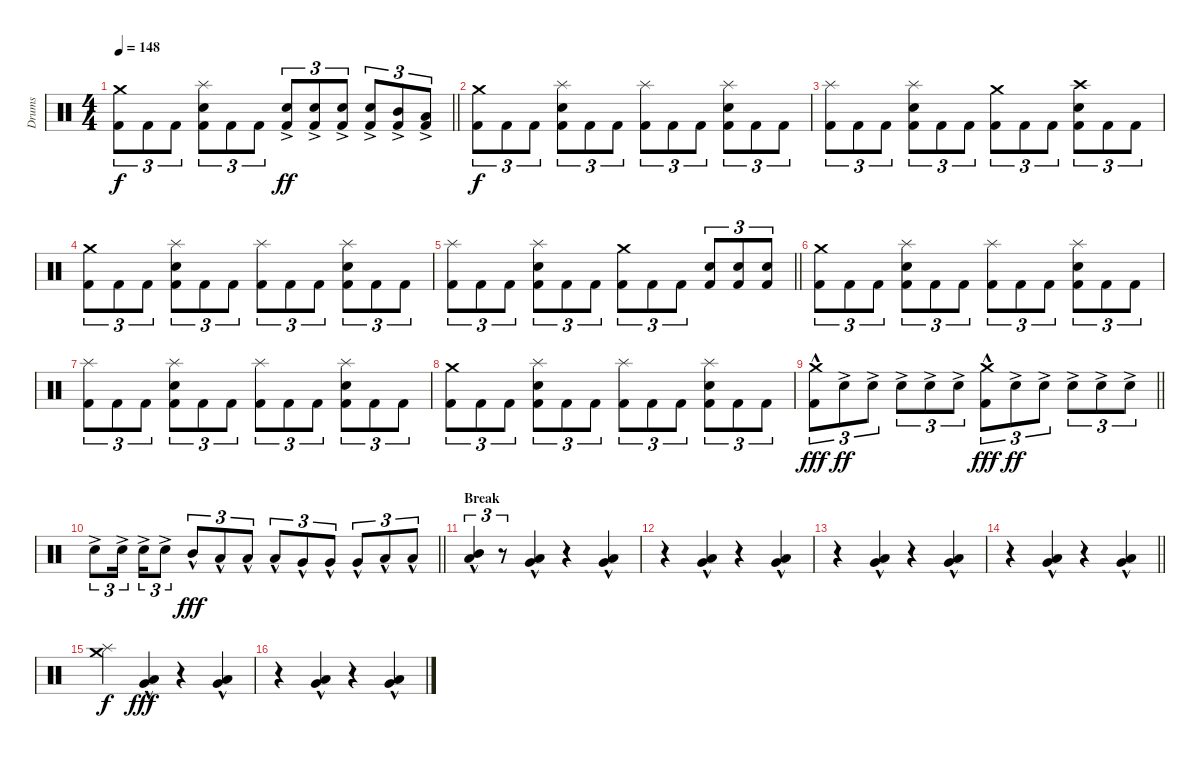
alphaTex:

\track ("Drums" "Drums") {instrument percussion}
\staff {score}
\articulation defaults
\ts (4 4)
\tempo 148
\clef neutral
\barLineRight lightlight
\ks c
("Kick (hit) 2" "Crash medium (hit)").8{tu (3 2) dy f} "Kick (hit) 2".8{tu (3 2)} "Kick (hit) 2".8{tu (3 2)} ("Kick (hit) 2" "Snare (hit) 2" "Splash (hit)").8{tu (3 2)} "Kick (hit) 2".8{tu (3 2)} "Kick (hit) 2".8{tu (3 2)} ("Kick (hit) 2" "Snare (hit) 2"{ac}).8{tu (3 2) dy ff} ("Kick (hit) 2" "Snare (hit) 2"{ac}).8{tu (3 2)} ("Kick (hit) 2" "Snare (hit) 2"{ac}).8{tu (3 2)} ("Kick (hit) 2" "Snare (hit) 2"{ac}).8{tu (3 2)} ("Kick (hit) 2" "Mid Tom (hit)"{ac}).8{tu (3 2)} ("Kick (hit) 2" "Low Tom (hit)"{ac}).8{tu (3 2)} |
\section ("" "")
("Kick (hit) 2" "Crash medium (hit)").8{tu (3 2) dy f} "Kick (hit) 2".8{tu (3 2)} "Kick (hit) 2".8{tu (3 2)} ("Kick (hit) 2" "Snare (hit) 2" "Splash (hit)").8{tu (3 2)} "Kick (hit) 2".8{tu (3 2)} "Kick (hit) 2".8{tu (3 2)} ("Kick (hit) 2" "Splash (hit)").8{tu (3 2)} "Kick (hit) 2".8{tu (3 2)} "Kick (hit) 2".8{tu (3 2)} ("Kick (hit) 2" "Snare (hit) 2" "Splash (hit)").8{tu (3 2)} "Kick (hit) 2".8{tu (3 2)} "Kick (hit) 2".8{tu (3 2)} |
("Kick (hit) 2" "Splash (hit)").8{tu (3 2)} "Kick (hit) 2".8{tu (3 2)} "Kick (hit) 2".8{tu (3 2)} ("Kick (hit) 2" "Snare (hit) 2" "Splash (hit)").8{tu (3 2)} "Kick (hit) 2".8{tu (3 2)} "Kick (hit) 2".8{tu (3 2)} ("Kick (hit) 2" "Crash medium (hit)").8{tu (3 2)} "Kick (hit) 2".8{tu (3 2)} "Kick (hit) 2".8{tu (3 2)} ("Kick (hit) 2" "Snare (hit) 2" "Crash high (hit)").8{tu (3 2)} "Kick (hit) 2".8{tu (3 2)} "Kick (hit) 2".8{tu (3 2)} |
("Kick (hit) 2" "Crash medium (hit)").8{tu (3 2)} "Kick (hit) 2".8{tu (3 2)} "Kick (hit) 2".8{tu (3 2)} ("Kick (hit) 2" "Snare (hit) 2" "Splash (hit)").8{tu (3 2)} "Kick (hit) 2".8{tu (3 2)} "Kick (hit) 2".8{tu (3 2)} ("Kick (hit) 2" "Splash (hit)").8{tu (3 2)} "Kick (hit) 2".8{tu (3 2)} "Kick (hit) 2".8{tu (3 2)} ("Kick (hit) 2" "Snare (hit) 2" "Splash (hit)").8{tu (3 2)} "Kick (hit) 2".8{tu (3 2)} "Kick (hit) 2".8{tu (3 2)} |
\barLineRight lightlight
("Kick (hit) 2" "Splash (hit)").8{tu (3 2)} "Kick (hit) 2".8{tu (3 2)} "Kick (hit) 2".8{tu (3 2)} ("Kick (hit) 2" "Snare (hit) 2" "Splash (hit)").8{tu (3 2)} "Kick (hit) 2".8{tu (3 2)} "Kick (hit) 2".8{tu (3 2)} ("Kick (hit) 2" "Crash medium (hit)").8{tu (3 2)} "Kick (hit) 2".8{tu (3 2)} "Kick (hit) 2".8{tu (3 2)} ("Kick (hit) 2" "Snare (hit) 2").8{tu (3 2)} ("Kick (hit) 2" "Snare (hit) 2").8{tu (3 2)} ("Kick (hit) 2" "Snare (hit) 2").8{tu (3 2)} |
\section ("" "")
("Kick (hit) 2" "Crash medium (hit)").8{tu (3 2)} "Kick (hit) 2".8{tu (3 2)} "Kick (hit) 2".8{tu (3 2)} ("Kick (hit) 2" "Snare (hit) 2" "Splash (hit)").8{tu (3 2)} "Kick (hit) 2".8{tu (3 2)} "Kick (hit) 2".8{tu (3 2)} ("Kick (hit) 2" "Splash (hit)").8{tu (3 2)} "Kick (hit) 2".8{tu (3 2)} "Kick (hit) 2".8{tu (3 2)} ("Kick (hit) 2" "Snare (hit) 2" "Splash (hit)").8{tu (3 2)} "Kick (hit) 2".8{tu (3 2)} "Kick (hit) 2".8{tu (3 2)} |
("Kick (hit) 2" "Splash (hit)").8{tu (3 2)} "Kick (hit) 2".8{tu (3 2)} "Kick (hit) 2".8{tu (3 2)} ("Kick (hit) 2" "Snare (hit) 2" "Splash (hit)").8{tu (3 2)} "Kick (hit) 2".8{tu (3 2)} "Kick (hit) 2".8{tu (3 2)} ("Kick (hit) 2" "Splash (hit)").8{tu (3 2)} "Kick (hit) 2".8{tu (3 2)} "Kick (hit) 2".8{tu (3 2)} ("Kick (hit) 2" "Snare (hit) 2" "Splash (hit)").8{tu (3 2)} "Kick (hit) 2".8{tu (3 2)} "Kick (hit) 2".8{tu (3 2)} |
("Kick (hit) 2" "Crash medium (hit)").8{tu (3 2)} "Kick (hit) 2".8{tu (3 2)} "Kick (hit) 2".8{tu (3 2)} ("Kick (hit) 2" "Snare (hit) 2" "Splash (hit)").8{tu (3 2)} "Kick (hit) 2".8{tu (3 2)} "Kick (hit) 2".8{tu (3 2)} ("Kick (hit) 2" "Splash (hit)").8{tu (3 2)} "Kick (hit) 2".8{tu (3 2)} "Kick (hit) 2".8{tu (3 2)} ("Kick (hit) 2" "Snare (hit) 2" "Splash (hit)").8{tu (3 2)} "Kick (hit) 2".8{tu (3 2)} "Kick (hit) 2".8{tu (3 2)} |
\barLineRight lightlight
("Kick (hit) 2"{hac} "Crash medium (hit)").8{tu (3 2) dy fff} "Snare (hit) 2"{ac}.8{tu (3 2) dy ff} "Snare (hit) 2"{ac}.8{tu (3 2)} "Snare (hit) 2"{ac}.8{tu (3 2)} "Snare (hit) 2"{ac}.8{tu (3 2)} "Snare (hit) 2"{ac}.8{tu (3 2)} ("Kick (hit) 2"{hac} "Crash medium (hit)").8{tu (3 2) dy fff} "Snare (hit) 2"{ac}.8{tu (3 2) dy ff} "Snare (hit) 2"{ac}.8{tu (3 2)} "Snare (hit) 2"{ac}.8{tu (3 2)} "Snare (hit) 2"{ac}.8{tu (3 2)} "Snare (hit) 2"{ac}.8{tu (3 2)} |
\section ("" "")
\barLineRight lightlight "Snare (hit) 2"{ac}.8{tu (3 2)} "Snare (hit) 2"{ac}.16{tu (3 2) beam splitsecondary} "Snare (hit) 2"{ac}.16{tu (3 2)} "Snare (hit) 2"{ac}.8{tu (3 2)} "Mid Tom (hit)"{hac}.8{tu (3 2) dy fff} "Low Tom (hit)"{hac}.8{tu (3 2)} "Low Tom (hit)"{hac}.8{tu (3 2)} "Low Tom (hit)"{hac}.8{tu (3 2)} "Very Low Tom (hit)"{hac}.8{tu (3 2)} "Very Low Tom (hit)"{hac}.8{tu (3 2)} "Very Low Tom (hit)"{hac}.8{tu (3 2)} "Low Floor Tom (hit)"{hac}.8{tu (3 2)} "Low Floor Tom (hit)"{hac}.8{tu (3 2)}
|
\section ("" "Break")
("Mid Tom (hit)"{hac} "Low Tom (hit)"{hac}).4{tu (3 2)} r.8{tu (3 2)} ("Very Low Tom (hit)"{hac} "Low Floor Tom (hit)"{hac}).4 r.4 ("Very Low Tom (hit)"{hac} "Low Floor Tom (hit)"{hac}).4 |
r.4 ("Very Low Tom (hit)"{hac} "Low Floor Tom (hit)"{hac}).4 r.4 ("Very Low Tom (hit)"{hac} "Low Floor Tom (hit)"{hac}).4 |
r.4 ("Very Low Tom (hit)"{hac} "Low Floor Tom (hit)"{hac}).4 r.4 ("Very Low Tom (hit)"{hac} "Low Floor Tom (hit)"{hac}).4 |
\barLineRight lightlight
r.4 ("Very Low Tom (hit)"{hac} "Low Floor Tom (hit)"{hac}).4 r.4 ("Very Low Tom (hit)"{hac} "Low Floor Tom (hit)"{hac}).4 |
\section ("" "")
("Splash (hit)" "Crash medium (hit)").4{dy f} ("Very Low Tom (hit)"{hac} "Low Floor Tom (hit)"{hac}).4{dy fff} r.4 ("Very Low Tom (hit)"{hac} "Low Floor Tom (hit)"{hac}).4 |
r.4 ("Very Low Tom (hit)"{hac} "Low Floor Tom (hit)"{hac}).4 r.4 ("Very Low Tom (hit)"{hac} "Low Floor Tom (hit)"{hac}).4
